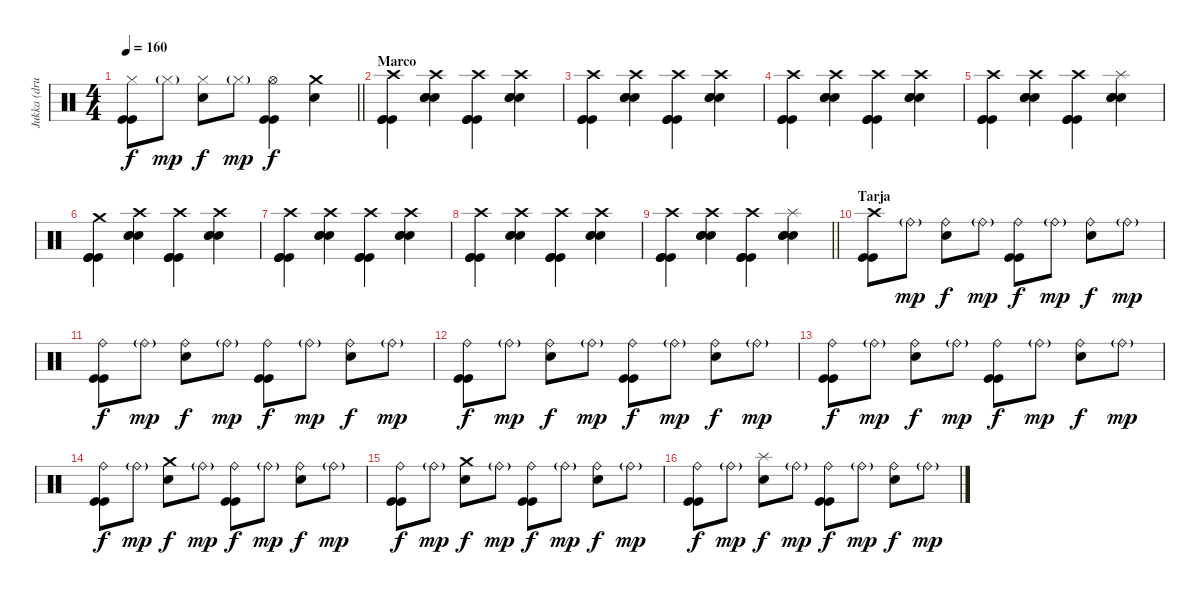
\track ("Jukka (drums)" "Jukka (dru") {instrument percussion}
\staff {score}
\articulation defaults
\ts (4 4)
\tempo 160
\clef neutral
\barLineRight lightlight
\ks c
("Hi-Hat (closed)" "Kick (hit)" "Kick (hit)").8{dy f} "Hi-Hat (closed)"{g}.8{dy mp} ("Hi-Hat (closed)" "Electric Snare (hit)").8{dy f} "Hi-Hat (closed)"{g}.8{dy mp} ("Hi-Hat (open)" "Kick (hit)" "Kick (hit)").4{dy f} ("Crash medium (hit)" "Electric Snare (hit)").4 |
\section ("" "Marco")
("Crash high (hit)" "Kick (hit)" "Kick (hit)" "Kick (hit)").4 ("Crash high (hit)" "Electric Snare (hit)" "Electric Snare (hit)" "Electric Snare (hit)").4 ("Crash high (hit)" "Kick (hit)" "Kick (hit)" "Kick (hit)").4 ("Crash high (hit)" "Electric Snare (hit)" "Electric Snare (hit)" "Electric Snare (hit)").4 |
("Crash high (hit)" "Kick (hit)" "Kick (hit)" "Kick (hit)").4 ("Crash high (hit)" "Electric Snare (hit)" "Electric Snare (hit)" "Electric Snare (hit)").4 ("Crash high (hit)" "Kick (hit)" "Kick (hit)" "Kick (hit)").4 ("Crash high (hit)" "Electric Snare (hit)" "Electric Snare (hit)" "Electric Snare (hit)").4 |
("Crash high (hit)" "Kick (hit)" "Kick (hit)" "Kick (hit)").4 ("Crash high (hit)" "Electric Snare (hit)" "Electric Snare (hit)" "Electric Snare (hit)").4 ("Crash high (hit)" "Kick (hit)" "Kick (hit)" "Kick (hit)").4 ("Crash high (hit)" "Electric Snare (hit)" "Electric Snare (hit)" "Electric Snare (hit)").4 |
("Crash high (hit)" "Kick (hit)" "Kick (hit)" "Kick (hit)").4 ("Crash high (hit)" "Electric Snare (hit)" "Electric Snare (hit)" "Electric Snare (hit)").4 ("Crash high (hit)" "Kick (hit)" "Kick (hit)" "Kick (hit)").4 ("Splash (hit)" "Electric Snare (hit)" "Electric Snare (hit)" "Electric Snare (hit)").4 |
("Crash medium (hit)" "Kick (hit)" "Kick (hit)" "Kick (hit)").4 ("Crash high (hit)" "Electric Snare (hit)" "Electric Snare (hit)" "Electric Snare (hit)").4 ("Crash high (hit)" "Kick (hit)" "Kick (hit)" "Kick (hit)").4 ("Crash high (hit)" "Electric Snare (hit)" "Electric Snare (hit)" "Electric Snare (hit)").4 |
("Crash high (hit)" "Kick (hit)" "Kick (hit)" "Kick (hit)").4 ("Crash high (hit)" "Electric Snare (hit)" "Electric Snare (hit)" "Electric Snare (hit)").4 ("Crash high (hit)" "Kick (hit)" "Kick (hit)" "Kick (hit)").4 ("Crash high (hit)" "Electric Snare (hit)" "Electric Snare (hit)" "Electric Snare (hit)").4 |
("Crash high (hit)" "Kick (hit)" "Kick (hit)" "Kick (hit)").4 ("Crash high (hit)" "Electric Snare (hit)" "Electric Snare (hit)" "Electric Snare (hit)").4 ("Crash high (hit)" "Kick (hit)" "Kick (hit)" "Kick (hit)").4 ("Crash high (hit)" "Electric Snare (hit)" "Electric Snare (hit)" "Electric Snare (hit)").4 |
\barLineRight lightlight
("Crash high (hit)" "Kick (hit)" "Kick (hit)" "Kick (hit)").4 ("Crash high (hit)" "Electric Snare (hit)" "Electric Snare (hit)" "Electric Snare (hit)").4 ("Crash high (hit)" "Kick (hit)" "Kick (hit)" "Kick (hit)").4 ("Splash (hit)" "Electric Snare (hit)" "Electric Snare (hit)" "Electric Snare (hit)").4 |
\section ("" "Tarja")
("Crash high (hit)" "Kick (hit)" "Kick (hit)").8 "Ride (bell)"{g}.8{dy mp} ("Ride (bell)" "Electric Snare (hit)").8{dy f} "Ride (bell)"{g}.8{dy mp} ("Ride (bell)" "Kick (hit)" "Kick (hit)").8{dy f} "Ride (bell)"{g}.8{dy mp} ("Ride (bell)" "Electric Snare (hit)").8{dy f} "Ride (bell)"{g}.8{dy mp} |
("Ride (bell)" "Kick (hit)" "Kick (hit)").8{dy f} "Ride (bell)"{g}.8{dy mp} ("Ride (bell)" "Electric Snare (hit)").8{dy f} "Ride (bell)"{g}.8{dy mp} ("Ride (bell)" "Kick (hit)" "Kick (hit)").8{dy f} "Ride (bell)"{g}.8{dy mp} ("Ride (bell)" "Electric Snare (hit)").8{dy f} "Ride (bell)"{g}.8{dy mp} |
("Ride (bell)" "Kick (hit)" "Kick (hit)").8{dy f} "Ride (bell)"{g}.8{dy mp} ("Ride (bell)" "Electric Snare (hit)").8{dy f} "Ride (bell)"{g}.8{dy mp} ("Ride (bell)" "Kick (hit)" "Kick (hit)").8{dy f} "Ride (bell)"{g}.8{dy mp} ("Ride (bell)" "Electric Snare (hit)").8{dy f} "Ride (bell)"{g}.8{dy mp} |
("Ride (bell)" "Kick (hit)" "Kick (hit)").8{dy f} "Ride (bell)"{g}.8{dy mp} ("Ride (bell)" "Electric Snare (hit)").8{dy f} "Ride (bell)"{g}.8{dy mp} ("Ride (bell)" "Kick (hit)" "Kick (hit)").8{dy f} "Ride (bell)"{g}.8{dy mp} ("Ride (bell)" "Electric Snare (hit)").8{dy f} "Ride (bell)"{g}.8{dy mp} |
("Ride (bell)" "Kick (hit)" "Kick (hit)").8{dy f} "Ride (bell)"{g}.8{dy mp} ("Crash medium (hit)" "Electric Snare (hit)").8{dy f} "Ride (bell)"{g}.8{dy mp} ("Ride (bell)" "Kick (hit)" "Kick (hit)").8{dy f} "Ride (bell)"{g}.8{dy mp} ("Ride (bell)" "Electric Snare (hit)").8{dy f} "Ride (bell)"{g}.8{dy mp} |
("Ride (bell)" "Kick (hit)" "Kick (hit)").8{dy f} "Ride (bell)"{g}.8{dy mp} ("Crash medium (hit)" "Electric Snare (hit)").8{dy f} "Ride (bell)"{g}.8{dy mp} ("Ride (bell)" "Kick (hit)" "Kick (hit)").8{dy f} "Ride (bell)"{g}.8{dy mp} ("Ride (bell)" "Electric Snare (hit)").8{dy f} "Ride (bell)"{g}.8{dy mp} |
("Ride (bell)" "Kick (hit)" "Kick (hit)").8{dy f} "Ride (bell)"{g}.8{dy mp} ("Splash (hit)" "Electric Snare (hit)").8{dy f} "Ride (bell)"{g}.8{dy mp} ("Ride (bell)" "Kick (hit)" "Kick (hit)").8{dy f} "Ride (bell)"{g}.8{dy mp} ("Ride (bell)" "Electric Snare (hit)").8{dy f} "Ride (bell)"{g}.8{dy mp}
